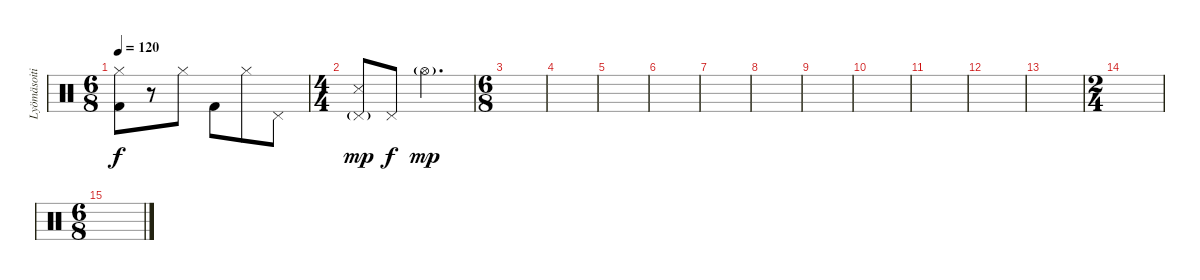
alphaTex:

\track ("Lyömäsoitin" "Lyömäsoiti") {instrument percussion}
\staff {score}
\articulation defaults
\ts (6 8)
\tempo 120
\clef neutral
\ks c
("Hi-Hat (closed)" "Kick (hit) 2").8{dy f} r.8 "Hi-Hat (closed)".8 "Kick (hit) 2".8 "Hi-Hat (closed)".8 "Pedal Hi-Hat (hit)".8 |
\ts (4 4)
("Pedal Hi-Hat (hit)"{g} "Snare (side stick) 3").8{dy mp} "Pedal Hi-Hat (hit)".8{dy f} "Hi-Hat (open)"{g}.2{d dy mp} |
\ts (6 8)
|
|
|
|
|
|
|
|
|
|
|
\ts (2 4)
|
\ts (6 8)
